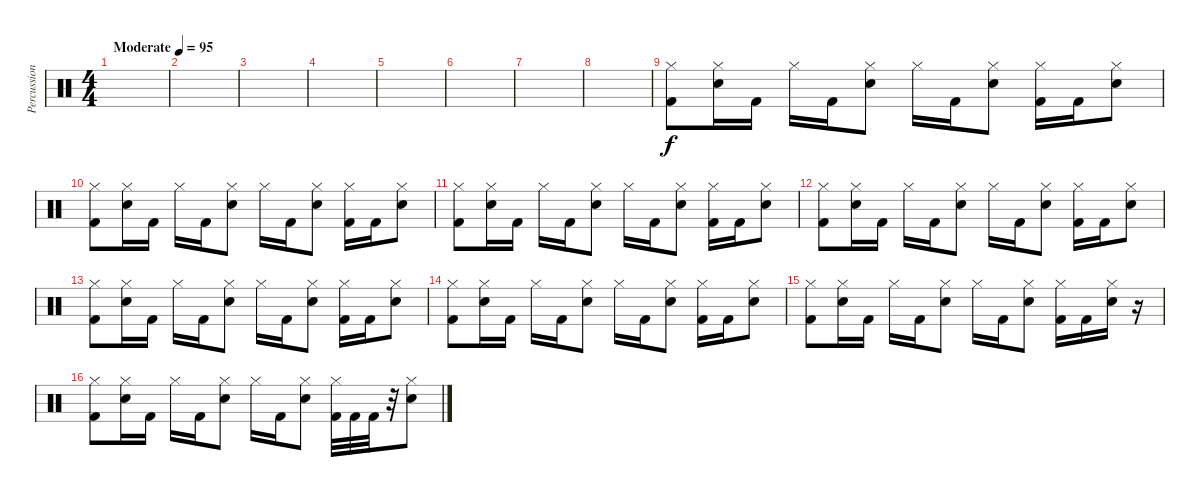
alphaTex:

\track ("Percussion" "Percussion") {instrument percussion}
\staff {score}
\articulation defaults
\ts (4 4)
\tempo (95 "Moderate")
\clef neutral
\ks c
|
|
|
|
|
|
|
|
("Hi-Hat (closed)" "Kick (hit) 2").8 ("Hi-Hat (closed)" "Electric Snare (hit)").16 "Kick (hit) 2".16 "Hi-Hat (closed)".16 "Kick (hit) 2".16 ("Hi-Hat (closed)" "Electric Snare (hit)").8 "Hi-Hat (closed)".16 "Kick (hit) 2".16 ("Hi-Hat (closed)" "Electric Snare (hit)").8 ("Hi-Hat (closed)" "Kick (hit) 2").16 "Kick (hit) 2".16 ("Hi-Hat (closed)" "Electric Snare (hit)").8 |
("Hi-Hat (closed)" "Kick (hit) 2").8 ("Hi-Hat (closed)" "Electric Snare (hit)").16 "Kick (hit) 2".16 "Hi-Hat (closed)".16 "Kick (hit) 2".16 ("Hi-Hat (closed)" "Electric Snare (hit)").8 "Hi-Hat (closed)".16 "Kick (hit) 2".16 ("Hi-Hat (closed)" "Electric Snare (hit)").8 ("Hi-Hat (closed)" "Kick (hit) 2").16 "Kick (hit) 2".16 ("Hi-Hat (closed)" "Electric Snare (hit)").8 |
("Hi-Hat (closed)" "Kick (hit) 2").8 ("Hi-Hat (closed)" "Electric Snare (hit)").16 "Kick (hit) 2".16 "Hi-Hat (closed)".16 "Kick (hit) 2".16 ("Hi-Hat (closed)" "Electric Snare (hit)").8 "Hi-Hat (closed)".16 "Kick (hit) 2".16 ("Hi-Hat (closed)" "Electric Snare (hit)").8 ("Hi-Hat (closed)" "Kick (hit) 2").16 "Kick (hit) 2".16 ("Hi-Hat (closed)" "Electric Snare (hit)").8 |
("Hi-Hat (closed)" "Kick (hit) 2").8 ("Hi-Hat (closed)" "Electric Snare (hit)").16 "Kick (hit) 2".16 "Hi-Hat (closed)".16 "Kick (hit) 2".16 ("Hi-Hat (closed)" "Electric Snare (hit)").8 "Hi-Hat (closed)".16 "Kick (hit) 2".16 ("Hi-Hat (closed)" "Electric Snare (hit)").8 ("Hi-Hat (closed)" "Kick (hit) 2").16 "Kick (hit) 2".16 ("Hi-Hat (closed)" "Electric Snare (hit)").8 |
("Hi-Hat (closed)" "Kick (hit) 2").8 ("Hi-Hat (closed)" "Electric Snare (hit)").16 "Kick (hit) 2".16 "Hi-Hat (closed)".16 "Kick (hit) 2".16 ("Hi-Hat (closed)" "Electric Snare (hit)").8 "Hi-Hat (closed)".16 "Kick (hit) 2".16 ("Hi-Hat (closed)" "Electric Snare (hit)").8 ("Hi-Hat (closed)" "Kick (hit) 2").16 "Kick (hit) 2".16 ("Hi-Hat (closed)" "Electric Snare (hit)").8 |
("Hi-Hat (closed)" "Kick (hit) 2").8 ("Hi-Hat (closed)" "Electric Snare (hit)").16 "Kick (hit) 2".16 "Hi-Hat (closed)".16 "Kick (hit) 2".16 ("Hi-Hat (closed)" "Electric Snare (hit)").8 "Hi-Hat (closed)".16 "Kick (hit) 2".16 ("Hi-Hat (closed)" "Electric Snare (hit)").8 ("Hi-Hat (closed)" "Kick (hit) 2").16 "Kick (hit) 2".16 ("Hi-Hat (closed)" "Electric Snare (hit)").8 |
("Hi-Hat (closed)" "Kick (hit) 2").8 ("Hi-Hat (closed)" "Electric Snare (hit)").16 "Kick (hit) 2".16 "Hi-Hat (closed)".16 "Kick (hit) 2".16 ("Hi-Hat (closed)" "Electric Snare (hit)").8 "Hi-Hat (closed)".16 "Kick (hit) 2".16 ("Hi-Hat (closed)" "Electric Snare (hit)").8 ("Hi-Hat (closed)" "Kick (hit) 2").16 "Kick (hit) 2".16 ("Hi-Hat (closed)" "Electric Snare (hit)").16 r.16 |
("Hi-Hat (closed)" "Kick (hit) 2").8 ("Hi-Hat (closed)" "Electric Snare (hit)").16 "Kick (hit) 2".16 "Hi-Hat (closed)".16 "Kick (hit) 2".16 ("Hi-Hat (closed)" "Electric Snare (hit)").8 "Hi-Hat (closed)".16 "Kick (hit) 2".16 ("Hi-Hat (closed)" "Electric Snare (hit)").8 ("Hi-Hat (closed)" "Kick (hit) 2").32 "Kick (hit) 2".32 "Kick (hit) 2".32 r.32 ("Hi-Hat (closed)" "Electric Snare (hit)").8
